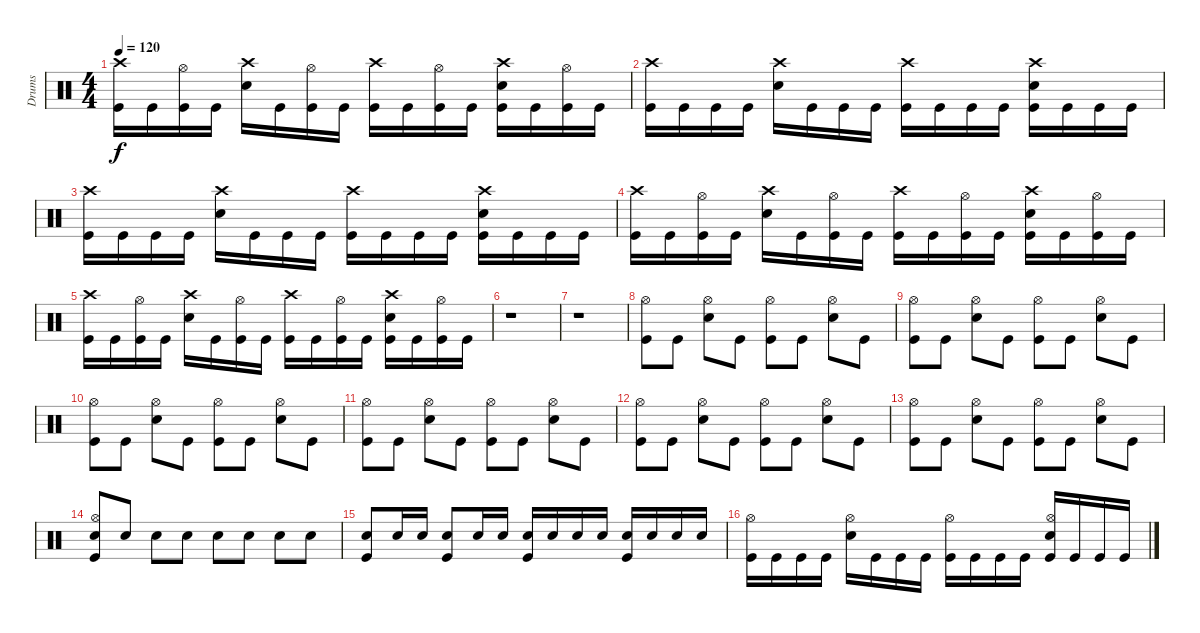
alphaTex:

\track ("Drums" "Drums") {instrument percussion}
\staff {score}
\articulation defaults
\ts (4 4)
\tempo 120
\clef neutral
\ks c
("Crash high (hit)" "Kick (hit)").16{dy f} "Kick (hit)".16 ("Hi-Hat (open)" "Kick (hit)").16 "Kick (hit)".16 ("Crash high (hit)" "Snare (hit) 2").16 "Kick (hit)".16 ("Hi-Hat (open)" "Kick (hit)").16 "Kick (hit)".16 ("Crash high (hit)" "Kick (hit)").16 "Kick (hit)".16 ("Hi-Hat (open)" "Kick (hit)").16 "Kick (hit)".16 ("Crash high (hit)" "Snare (hit) 2" "Kick (hit)").16 "Kick (hit)".16 ("Hi-Hat (open)" "Kick (hit)").16 "Kick (hit)".16 |
("Crash high (hit)" "Kick (hit)").16 "Kick (hit)".16 "Kick (hit)".16 "Kick (hit)".16 ("Crash high (hit)" "Snare (hit) 2").16 "Kick (hit)".16 "Kick (hit)".16 "Kick (hit)".16 ("Crash high (hit)" "Kick (hit)").16 "Kick (hit)".16 "Kick (hit)".16 "Kick (hit)".16 ("Crash high (hit)" "Snare (hit) 2" "Kick (hit)").16 "Kick (hit)".16 "Kick (hit)".16 "Kick (hit)".16 |
("Crash high (hit)" "Kick (hit)").16 "Kick (hit)".16 "Kick (hit)".16 "Kick (hit)".16 ("Crash high (hit)" "Snare (hit) 2").16 "Kick (hit)".16 "Kick (hit)".16 "Kick (hit)".16 ("Crash high (hit)" "Kick (hit)").16 "Kick (hit)".16 "Kick (hit)".16 "Kick (hit)".16 ("Crash high (hit)" "Snare (hit) 2" "Kick (hit)").16 "Kick (hit)".16 "Kick (hit)".16 "Kick (hit)".16 |
("Crash high (hit)" "Kick (hit)").16 "Kick (hit)".16 ("Hi-Hat (open)" "Kick (hit)").16 "Kick (hit)".16 ("Crash high (hit)" "Snare (hit) 2").16 "Kick (hit)".16 ("Hi-Hat (open)" "Kick (hit)").16 "Kick (hit)".16 ("Crash high (hit)" "Kick (hit)").16 "Kick (hit)".16 ("Hi-Hat (open)" "Kick (hit)").16 "Kick (hit)".16 ("Crash high (hit)" "Snare (hit) 2" "Kick (hit)").16 "Kick (hit)".16 ("Hi-Hat (open)" "Kick (hit)").16 "Kick (hit)".16 |
("Crash high (hit)" "Kick (hit)").16 "Kick (hit)".16 ("Hi-Hat (open)" "Kick (hit)").16 "Kick (hit)".16 ("Crash high (hit)" "Snare (hit) 2").16 "Kick (hit)".16 ("Hi-Hat (open)" "Kick (hit)").16 "Kick (hit)".16 ("Crash high (hit)" "Kick (hit)").16 "Kick (hit)".16 ("Hi-Hat (open)" "Kick (hit)").16 "Kick (hit)".16 ("Crash high (hit)" "Snare (hit) 2" "Kick (hit)").16 "Kick (hit)".16 ("Hi-Hat (open)" "Kick (hit)").16 "Kick (hit)".16 |
r.1 |
r.1 |
("Hi-Hat (open)" "Kick (hit)").8 "Kick (hit)".8 ("Hi-Hat (open)" "Snare (hit) 2").8 "Kick (hit)".8 ("Hi-Hat (open)" "Kick (hit)").8 "Kick (hit)".8 ("Hi-Hat (open)" "Snare (hit) 2").8 "Kick (hit)".8 |
("Hi-Hat (open)" "Kick (hit)").8 "Kick (hit)".8 ("Hi-Hat (open)" "Snare (hit) 2").8 "Kick (hit)".8 ("Hi-Hat (open)" "Kick (hit)").8 "Kick (hit)".8 ("Hi-Hat (open)" "Snare (hit) 2").8 "Kick (hit)".8 |
("Hi-Hat (open)" "Kick (hit)").8 "Kick (hit)".8 ("Hi-Hat (open)" "Snare (hit) 2").8 "Kick (hit)".8 ("Hi-Hat (open)" "Kick (hit)").8 "Kick (hit)".8 ("Hi-Hat (open)" "Snare (hit) 2").8 "Kick (hit)".8 |
("Hi-Hat (open)" "Kick (hit)").8 "Kick (hit)".8 ("Hi-Hat (open)" "Snare (hit) 2").8 "Kick (hit)".8 ("Hi-Hat (open)" "Kick (hit)").8 "Kick (hit)".8 ("Hi-Hat (open)" "Snare (hit) 2").8 "Kick (hit)".8 |
("Hi-Hat (open)" "Kick (hit)").8 "Kick (hit)".8 ("Hi-Hat (open)" "Snare (hit) 2").8 "Kick (hit)".8 ("Hi-Hat (open)" "Kick (hit)").8 "Kick (hit)".8 ("Hi-Hat (open)" "Snare (hit) 2").8 "Kick (hit)".8 |
("Hi-Hat (open)" "Kick (hit)").8 "Kick (hit)".8 ("Hi-Hat (open)" "Snare (hit) 2").8 "Kick (hit)".8 ("Hi-Hat (open)" "Kick (hit)").8 "Kick (hit)".8 ("Hi-Hat (open)" "Snare (hit) 2").8 "Kick (hit)".8 |
("Hi-Hat (open)" "Snare (hit) 2" "Kick (hit)").8 "Snare (hit) 2".8 "Snare (hit) 2".8 "Snare (hit) 2".8 "Snare (hit) 2".8 "Snare (hit) 2".8 "Snare (hit) 2".8 "Snare (hit) 2".8 |
("Snare (hit) 2" "Kick (hit)").8 "Snare (hit) 2".16 "Snare (hit) 2".16 ("Snare (hit) 2" "Kick (hit)").8 "Snare (hit) 2".16 "Snare (hit) 2".16 ("Snare (hit) 2" "Kick (hit)").16 "Snare (hit) 2".16 "Snare (hit) 2".16 "Snare (hit) 2".16 ("Snare (hit) 2" "Kick (hit)").16 "Snare (hit) 2".16 "Snare (hit) 2".16 "Snare (hit) 2".16 |
("Hi-Hat (open)" "Kick (hit)").16 "Kick (hit)".16 "Kick (hit)".16 "Kick (hit)".16 ("Hi-Hat (open)" "Snare (hit) 2").16 "Kick (hit)".16 "Kick (hit)".16 "Kick (hit)".16 ("Hi-Hat (open)" "Kick (hit)").16 "Kick (hit)".16 "Kick (hit)".16 "Kick (hit)".16 ("Hi-Hat (open)" "Snare (hit) 2" "Kick (hit)").16 "Kick (hit)".16 "Kick (hit)".16 "Kick (hit)".16
